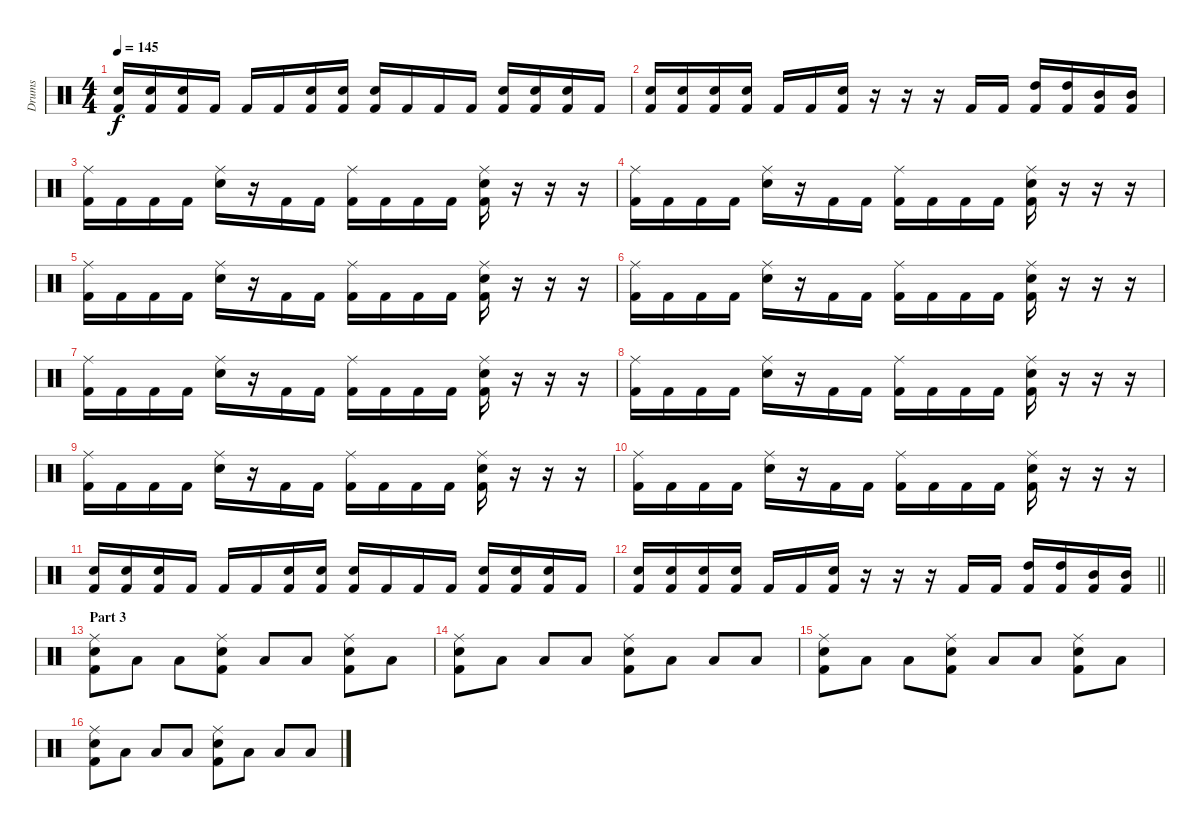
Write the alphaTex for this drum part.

\track ("Drums" "Drums") {instrument percussion}
\staff {score}
\articulation defaults
\ts (4 4)
\tempo 145
\clef neutral
\ks c
("Electric Snare (hit)" "Kick (hit) 2").16{dy f} ("Electric Snare (hit)" "Kick (hit) 2").16 ("Electric Snare (hit)" "Kick (hit) 2").16 "Kick (hit) 2".16 "Kick (hit) 2".16 "Kick (hit) 2".16 ("Electric Snare (hit)" "Kick (hit) 2").16 ("Electric Snare (hit)" "Kick (hit) 2").16 ("Electric Snare (hit)" "Kick (hit) 2").16 "Kick (hit) 2".16 "Kick (hit) 2".16 "Kick (hit) 2".16 ("Electric Snare (hit)" "Kick (hit) 2").16 ("Electric Snare (hit)" "Kick (hit) 2").16 ("Electric Snare (hit)" "Kick (hit) 2").16 "Kick (hit) 2".16 |
("Electric Snare (hit)" "Kick (hit) 2").16 ("Electric Snare (hit)" "Kick (hit) 2").16 ("Electric Snare (hit)" "Kick (hit) 2").16 ("Electric Snare (hit)" "Kick (hit) 2").16 "Kick (hit) 2".16 "Kick (hit) 2".16 ("Electric Snare (hit)" "Kick (hit) 2").16 r.16 r.16 r.16 "Kick (hit) 2".16 "Kick (hit) 2".16 ("High Tom (hit)" "Kick (hit) 2").16 ("High Tom (hit)" "Kick (hit) 2").16 ("Mid Tom (hit)" "Kick (hit) 2").16 ("Mid Tom (hit)" "Kick (hit) 2").16 |
("Ride (middle)" "Kick (hit) 2").16 "Kick (hit) 2".16 "Kick (hit) 2".16 "Kick (hit) 2".16 ("Ride (middle)" "Electric Snare (hit)").16 r.16 "Kick (hit) 2".16 "Kick (hit) 2".16 ("Ride (middle)" "Kick (hit) 2").16 "Kick (hit) 2".16 "Kick (hit) 2".16 "Kick (hit) 2".16 ("Ride (middle)" "Electric Snare (hit)" "Kick (hit) 2").16 r.16 r.16 r.16 |
("Ride (middle)" "Kick (hit) 2").16 "Kick (hit) 2".16 "Kick (hit) 2".16 "Kick (hit) 2".16 ("Ride (middle)" "Electric Snare (hit)").16 r.16 "Kick (hit) 2".16 "Kick (hit) 2".16 ("Ride (middle)" "Kick (hit) 2").16 "Kick (hit) 2".16 "Kick (hit) 2".16 "Kick (hit) 2".16 ("Ride (middle)" "Electric Snare (hit)" "Kick (hit) 2").16 r.16 r.16 r.16 |
("Ride (middle)" "Kick (hit) 2").16 "Kick (hit) 2".16 "Kick (hit) 2".16 "Kick (hit) 2".16 ("Ride (middle)" "Electric Snare (hit)").16 r.16 "Kick (hit) 2".16 "Kick (hit) 2".16 ("Ride (middle)" "Kick (hit) 2").16 "Kick (hit) 2".16 "Kick (hit) 2".16 "Kick (hit) 2".16 ("Ride (middle)" "Electric Snare (hit)" "Kick (hit) 2").16 r.16 r.16 r.16 |
("Ride (middle)" "Kick (hit) 2").16 "Kick (hit) 2".16 "Kick (hit) 2".16 "Kick (hit) 2".16 ("Ride (middle)" "Electric Snare (hit)").16 r.16 "Kick (hit) 2".16 "Kick (hit) 2".16 ("Ride (middle)" "Kick (hit) 2").16 "Kick (hit) 2".16 "Kick (hit) 2".16 "Kick (hit) 2".16 ("Ride (middle)" "Electric Snare (hit)" "Kick (hit) 2").16 r.16 r.16 r.16 |
("Ride (middle)" "Kick (hit) 2").16 "Kick (hit) 2".16 "Kick (hit) 2".16 "Kick (hit) 2".16 ("Ride (middle)" "Electric Snare (hit)").16 r.16 "Kick (hit) 2".16 "Kick (hit) 2".16 ("Ride (middle)" "Kick (hit) 2").16 "Kick (hit) 2".16 "Kick (hit) 2".16 "Kick (hit) 2".16 ("Ride (middle)" "Electric Snare (hit)" "Kick (hit) 2").16 r.16 r.16 r.16 |
("Ride (middle)" "Kick (hit) 2").16 "Kick (hit) 2".16 "Kick (hit) 2".16 "Kick (hit) 2".16 ("Ride (middle)" "Electric Snare (hit)").16 r.16 "Kick (hit) 2".16 "Kick (hit) 2".16 ("Ride (middle)" "Kick (hit) 2").16 "Kick (hit) 2".16 "Kick (hit) 2".16 "Kick (hit) 2".16 ("Ride (middle)" "Electric Snare (hit)" "Kick (hit) 2").16 r.16 r.16 r.16 |
("Ride (middle)" "Kick (hit) 2").16 "Kick (hit) 2".16 "Kick (hit) 2".16 "Kick (hit) 2".16 ("Ride (middle)" "Electric Snare (hit)").16 r.16 "Kick (hit) 2".16 "Kick (hit) 2".16 ("Ride (middle)" "Kick (hit) 2").16 "Kick (hit) 2".16 "Kick (hit) 2".16 "Kick (hit) 2".16 ("Ride (middle)" "Electric Snare (hit)" "Kick (hit) 2").16 r.16 r.16 r.16 |
("Ride (middle)" "Kick (hit) 2").16 "Kick (hit) 2".16 "Kick (hit) 2".16 "Kick (hit) 2".16 ("Ride (middle)" "Electric Snare (hit)").16 r.16 "Kick (hit) 2".16 "Kick (hit) 2".16 ("Ride (middle)" "Kick (hit) 2").16 "Kick (hit) 2".16 "Kick (hit) 2".16 "Kick (hit) 2".16 ("Ride (middle)" "Electric Snare (hit)" "Kick (hit) 2").16 r.16 r.16 r.16 |
("Electric Snare (hit)" "Kick (hit) 2").16 ("Electric Snare (hit)" "Kick (hit) 2").16 ("Electric Snare (hit)" "Kick (hit) 2").16 "Kick (hit) 2".16 "Kick (hit) 2".16 "Kick (hit) 2".16 ("Electric Snare (hit)" "Kick (hit) 2").16 ("Electric Snare (hit)" "Kick (hit) 2").16 ("Electric Snare (hit)" "Kick (hit) 2").16 "Kick (hit) 2".16 "Kick (hit) 2".16 "Kick (hit) 2".16 ("Electric Snare (hit)" "Kick (hit) 2").16 ("Electric Snare (hit)" "Kick (hit) 2").16 ("Electric Snare (hit)" "Kick (hit) 2").16 "Kick (hit) 2".16 |
\barLineRight lightlight
("Electric Snare (hit)" "Kick (hit) 2").16 ("Electric Snare (hit)" "Kick (hit) 2").16 ("Electric Snare (hit)" "Kick (hit) 2").16 ("Electric Snare (hit)" "Kick (hit) 2").16 "Kick (hit) 2".16 "Kick (hit) 2".16 ("Electric Snare (hit)" "Kick (hit) 2").16 r.16 r.16 r.16 "Kick (hit) 2".16 "Kick (hit) 2".16 ("High Tom (hit)" "Kick (hit) 2").16 ("High Tom (hit)" "Kick (hit) 2").16 ("Mid Tom (hit)" "Kick (hit) 2").16 ("Mid Tom (hit)" "Kick (hit) 2").16 |
\section ("" "Part 3")
("Ride (middle)" "Electric Snare (hit)" "Kick (hit) 2").8 "Low Floor Tom (hit)".8 "Low Floor Tom (hit)".8 ("Ride (middle)" "Electric Snare (hit)" "Kick (hit) 2").8 "Low Floor Tom (hit)".8 "Low Floor Tom (hit)".8 ("Ride (middle)" "Electric Snare (hit)" "Kick (hit) 2").8 "Low Floor Tom (hit)".8 |
("Ride (middle)" "Electric Snare (hit)" "Kick (hit) 2").8 "Low Floor Tom (hit)".8 "Low Floor Tom (hit)".8 "Low Floor Tom (hit)".8 ("Ride (middle)" "Electric Snare (hit)" "Kick (hit) 2").8 "Low Floor Tom (hit)".8 "Low Floor Tom (hit)".8 "Low Floor Tom (hit)".8 |
("Ride (middle)" "Electric Snare (hit)" "Kick (hit) 2").8 "Low Floor Tom (hit)".8 "Low Floor Tom (hit)".8 ("Ride (middle)" "Electric Snare (hit)" "Kick (hit) 2").8 "Low Floor Tom (hit)".8 "Low Floor Tom (hit)".8 ("Ride (middle)" "Electric Snare (hit)" "Kick (hit) 2").8 "Low Floor Tom (hit)".8 |
("Ride (middle)" "Electric Snare (hit)" "Kick (hit) 2").8 "Low Floor Tom (hit)".8 "Low Floor Tom (hit)".8 "Low Floor Tom (hit)".8 ("Ride (middle)" "Electric Snare (hit)" "Kick (hit) 2").8 "Low Floor Tom (hit)".8 "Low Floor Tom (hit)".8 "Low Floor Tom (hit)".8
